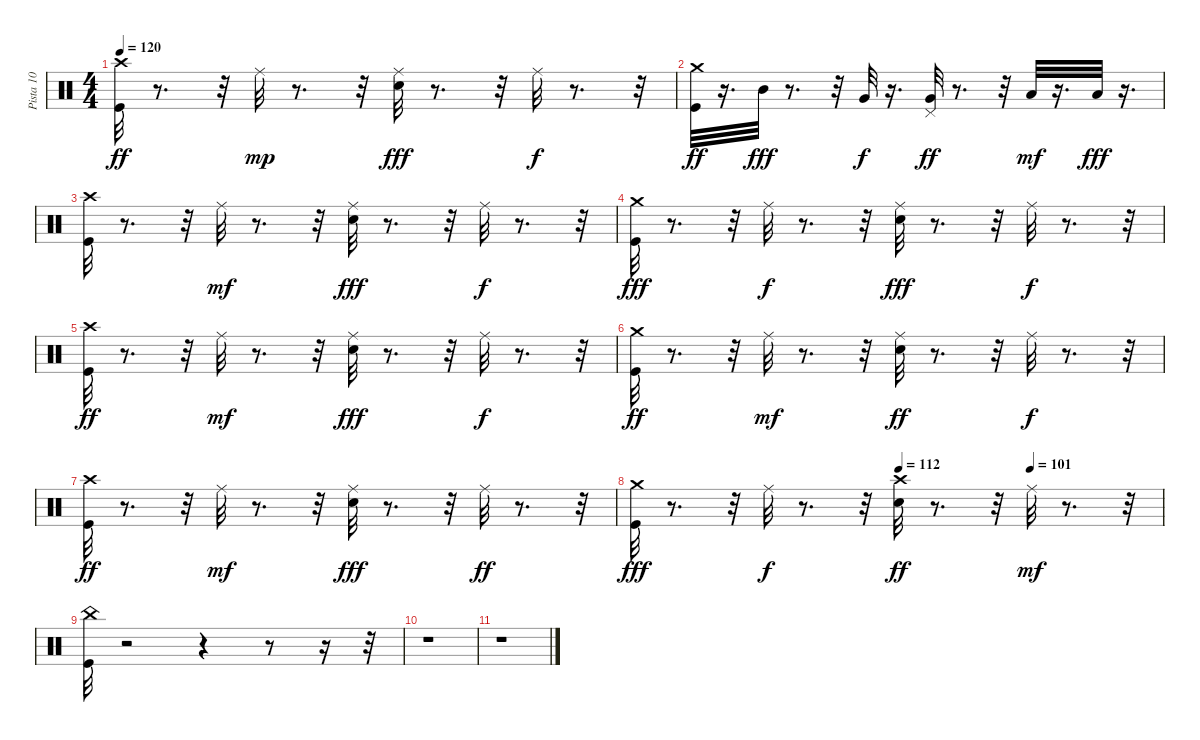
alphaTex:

\track ("Pista 10" "Pista 10") {instrument percussion}
\staff {score}
\articulation defaults
\ts (4 4)
\tempo 120
\clef neutral
\ks c
("Kick (hit)" "Crash high (hit)").32{dy ff} r.8{d} r.32 "Ride (middle)".32{dy mp} r.8{d} r.32 ("Snare (hit) 2" "Ride (middle)").32{dy fff} r.8{d} r.32 "Ride (middle)".32{dy f} r.8{d} r.32 |
("Kick (hit)" "Crash medium (hit)").32{dy ff} r.16{d} "Mid Tom (hit)".32{dy fff} r.8{d} r.32 "Very Low Tom (hit)".32{dy f} r.16{d} ("Very Low Tom (hit)" "Pedal Hi-Hat (hit)").32{dy ff} r.8{d} r.32 "Low Floor Tom (hit)".32{dy mf} r.16{d} "Low Floor Tom (hit)".32{dy fff} r.16{d} |
("Kick (hit)" "Crash high (hit)").32 r.8{d} r.32 "Ride (middle)".32{dy mf} r.8{d} r.32 ("Snare (hit) 2" "Ride (middle)").32{dy fff} r.8{d} r.32 "Ride (middle)".32{dy f} r.8{d} r.32 |
("Kick (hit)" "Crash medium (hit)").32{dy fff} r.8{d} r.32 "Ride (middle)".32{dy f} r.8{d} r.32 ("Snare (hit) 2" "Ride (middle)").32{dy fff} r.8{d} r.32 "Ride (middle)".32{dy f} r.8{d} r.32 |
("Kick (hit)" "Crash high (hit)").32{dy ff} r.8{d} r.32 "Ride (middle)".32{dy mf} r.8{d} r.32 ("Snare (hit) 2" "Ride (middle)").32{dy fff} r.8{d} r.32 "Ride (middle)".32{dy f} r.8{d} r.32 |
("Kick (hit)" "Crash medium (hit)").32{dy ff} r.8{d} r.32 "Ride (middle)".32{dy mf} r.8{d} r.32 ("Snare (hit) 2" "Ride (middle)").32{dy ff} r.8{d} r.32 "Ride (middle)".32{dy f} r.8{d} r.32 |
("Kick (hit)" "Crash high (hit)").32{dy ff} r.8{d} r.32 "Ride (middle)".32{dy mf} r.8{d} r.32 ("Snare (hit) 2" "Ride (middle)").32{dy fff} r.8{d} r.32 "Ride (middle)".32{dy ff} r.8{d} r.32 |
\tempo (112 0.5)
\tempo (101 0.75)
("Kick (hit)" "Crash medium (hit)").32{dy fff} r.8{d} r.32 "Ride (middle)".32{dy f} r.8{d} r.32 ("Snare (hit) 2" "Crash high (hit)").32{dy ff} r.8{d} r.32 "Ride (middle)".32{dy mf} r.8{d} r.32 |
("Kick (hit)" "China (hit)").32 r.2 r.4 r.8 r.16 r.32 |
r.1 |
r.1
